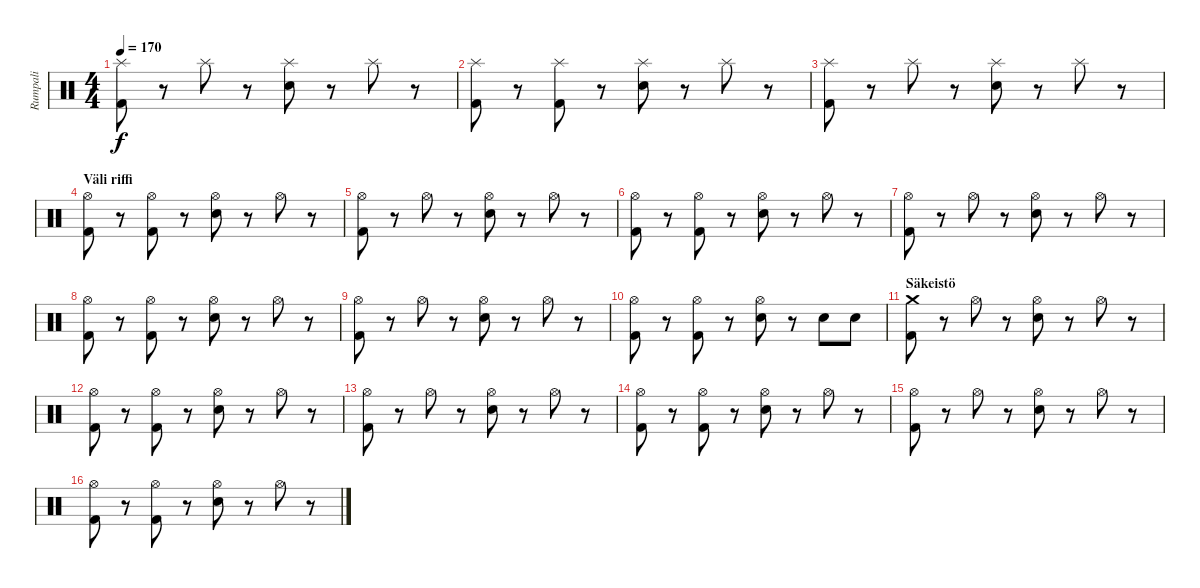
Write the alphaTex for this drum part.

\track ("Rumpali" "Rumpali") {instrument percussion}
\staff {score}
\articulation defaults
\ts (4 4)
\tempo 170
\clef neutral
\ks c
("Splash (hit)" "Kick (hit) 2").8{dy f} r.8 "Splash (hit)".8 r.8 ("Splash (hit)" "Electric Snare (hit)").8 r.8 "Splash (hit)".8 r.8 |
("Splash (hit)" "Kick (hit) 2").8 r.8 ("Splash (hit)" "Kick (hit) 2").8 r.8 ("Splash (hit)" "Electric Snare (hit)").8 r.8 "Splash (hit)".8 r.8 |
("Splash (hit)" "Kick (hit) 2").8 r.8 "Splash (hit)".8 r.8 ("Splash (hit)" "Electric Snare (hit)").8 r.8 "Splash (hit)".8 r.8 |
\section ("" "Väli riffi")
("Hi-Hat (open)" "Kick (hit) 2").8 r.8 ("Hi-Hat (open)" "Kick (hit) 2").8 r.8 ("Hi-Hat (open)" "Electric Snare (hit)").8 r.8 "Hi-Hat (open)".8 r.8 |
("Hi-Hat (open)" "Kick (hit) 2").8 r.8 "Hi-Hat (open)".8 r.8 ("Hi-Hat (open)" "Electric Snare (hit)").8 r.8 "Hi-Hat (open)".8 r.8 |
("Hi-Hat (open)" "Kick (hit) 2").8 r.8 ("Hi-Hat (open)" "Kick (hit) 2").8 r.8 ("Hi-Hat (open)" "Electric Snare (hit)").8 r.8 "Hi-Hat (open)".8 r.8 |
("Hi-Hat (open)" "Kick (hit) 2").8 r.8 "Hi-Hat (open)".8 r.8 ("Hi-Hat (open)" "Electric Snare (hit)").8 r.8 "Hi-Hat (open)".8 r.8 |
("Hi-Hat (open)" "Kick (hit) 2").8 r.8 ("Hi-Hat (open)" "Kick (hit) 2").8 r.8 ("Hi-Hat (open)" "Electric Snare (hit)").8 r.8 "Hi-Hat (open)".8 r.8 |
("Hi-Hat (open)" "Kick (hit) 2").8 r.8 "Hi-Hat (open)".8 r.8 ("Hi-Hat (open)" "Electric Snare (hit)").8 r.8 "Hi-Hat (open)".8 r.8 |
("Hi-Hat (open)" "Kick (hit) 2").8 r.8 ("Hi-Hat (open)" "Kick (hit) 2").8 r.8 ("Hi-Hat (open)" "Electric Snare (hit)").8 r.8 "Electric Snare (hit)".8 "Electric Snare (hit)".8 |
\section ("" "Säkeistö")
("Crash medium (hit)" "Kick (hit) 2").8 r.8 "Hi-Hat (open)".8 r.8 ("Hi-Hat (open)" "Electric Snare (hit)").8 r.8 "Hi-Hat (open)".8 r.8 |
("Hi-Hat (open)" "Kick (hit) 2").8 r.8 ("Hi-Hat (open)" "Kick (hit) 2").8 r.8 ("Hi-Hat (open)" "Electric Snare (hit)").8 r.8 "Hi-Hat (open)".8 r.8 |
("Hi-Hat (open)" "Kick (hit) 2").8 r.8 "Hi-Hat (open)".8 r.8 ("Hi-Hat (open)" "Electric Snare (hit)").8 r.8 "Hi-Hat (open)".8 r.8 |
("Hi-Hat (open)" "Kick (hit) 2").8 r.8 ("Hi-Hat (open)" "Kick (hit) 2").8 r.8 ("Hi-Hat (open)" "Electric Snare (hit)").8 r.8 "Hi-Hat (open)".8 r.8 |
("Hi-Hat (open)" "Kick (hit) 2").8 r.8 "Hi-Hat (open)".8 r.8 ("Hi-Hat (open)" "Electric Snare (hit)").8 r.8 "Hi-Hat (open)".8 r.8 |
("Hi-Hat (open)" "Kick (hit) 2").8 r.8 ("Hi-Hat (open)" "Kick (hit) 2").8 r.8 ("Hi-Hat (open)" "Electric Snare (hit)").8 r.8 "Hi-Hat (open)".8 r.8
